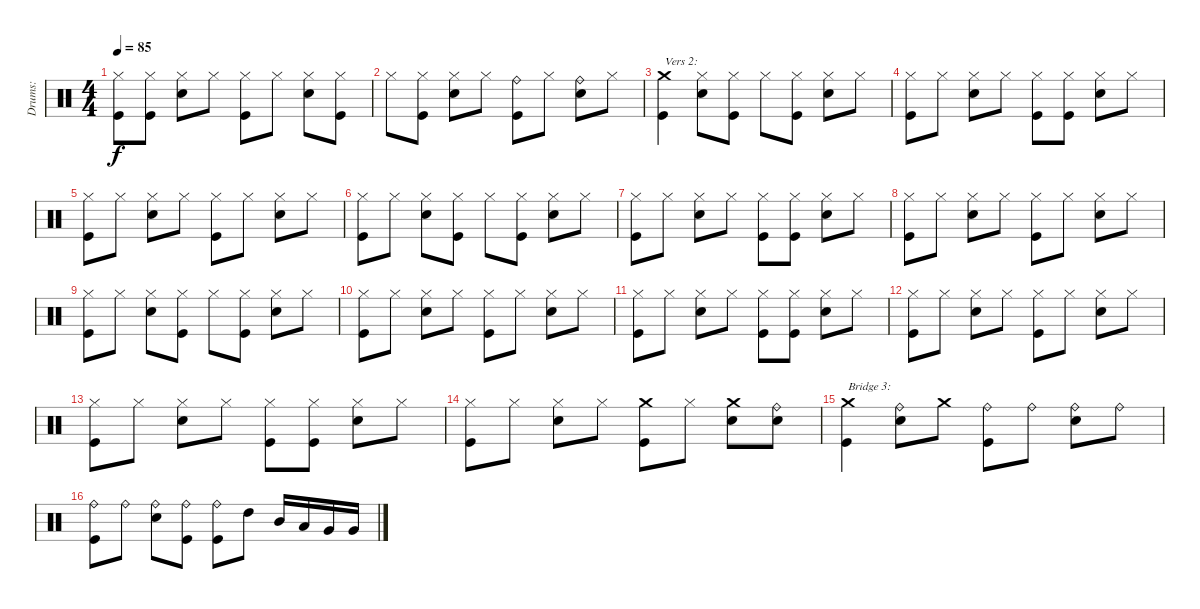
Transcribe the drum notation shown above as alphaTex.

\track ("Drums:" "Drums:") {instrument percussion}
\staff {score}
\articulation defaults
\ts (4 4)
\tempo 85
\clef neutral
\ks c
("Hi-Hat (closed)" "Kick (hit)").8{dy f} ("Hi-Hat (closed)" "Kick (hit)").8 ("Hi-Hat (closed)" "Snare (hit) 2").8 "Hi-Hat (closed)".8 ("Hi-Hat (closed)" "Kick (hit)").8 "Hi-Hat (closed)".8 ("Hi-Hat (closed)" "Snare (hit) 2").8 ("Hi-Hat (closed)" "Kick (hit)").8 |
"Hi-Hat (closed)".8 ("Hi-Hat (closed)" "Kick (hit)").8 ("Hi-Hat (closed)" "Snare (hit) 2").8 "Hi-Hat (closed)".8 ("Ride (bell)" "Kick (hit)").8 "Hi-Hat (closed)".8 ("Ride (bell)" "Snare (hit) 2").8 "Hi-Hat (closed)".8 |
("Crash medium (hit)" "Kick (hit)").4{txt "Vers 2:"} ("Hi-Hat (closed)" "Snare (hit) 2").8 ("Hi-Hat (closed)" "Kick (hit)").8 "Hi-Hat (closed)".8 ("Hi-Hat (closed)" "Kick (hit)").8 ("Hi-Hat (closed)" "Snare (hit) 2").8 "Hi-Hat (closed)".8 |
("Hi-Hat (closed)" "Kick (hit)").8 "Hi-Hat (closed)".8 ("Hi-Hat (closed)" "Snare (hit) 2").8 "Hi-Hat (closed)".8 ("Hi-Hat (closed)" "Kick (hit)").8 ("Hi-Hat (closed)" "Kick (hit)").8 ("Hi-Hat (closed)" "Snare (hit) 2").8 "Hi-Hat (closed)".8 |
("Hi-Hat (closed)" "Kick (hit)").8 "Hi-Hat (closed)".8 ("Hi-Hat (closed)" "Snare (hit) 2").8 "Hi-Hat (closed)".8 ("Hi-Hat (closed)" "Kick (hit)").8 "Hi-Hat (closed)".8 ("Hi-Hat (closed)" "Snare (hit) 2").8 "Hi-Hat (closed)".8 |
("Hi-Hat (closed)" "Kick (hit)").8 "Hi-Hat (closed)".8 ("Hi-Hat (closed)" "Snare (hit) 2").8 ("Hi-Hat (closed)" "Kick (hit)").8 "Hi-Hat (closed)".8 ("Hi-Hat (closed)" "Kick (hit)").8 ("Hi-Hat (closed)" "Snare (hit) 2").8 "Hi-Hat (closed)".8 |
("Hi-Hat (closed)" "Kick (hit)").8 "Hi-Hat (closed)".8 ("Hi-Hat (closed)" "Snare (hit) 2").8 "Hi-Hat (closed)".8 ("Hi-Hat (closed)" "Kick (hit)").8 ("Hi-Hat (closed)" "Kick (hit)").8 ("Hi-Hat (closed)" "Snare (hit) 2").8 "Hi-Hat (closed)".8 |
("Hi-Hat (closed)" "Kick (hit)").8 "Hi-Hat (closed)".8 ("Hi-Hat (closed)" "Snare (hit) 2").8 "Hi-Hat (closed)".8 ("Hi-Hat (closed)" "Kick (hit)").8 "Hi-Hat (closed)".8 ("Hi-Hat (closed)" "Snare (hit) 2").8 "Hi-Hat (closed)".8 |
("Hi-Hat (closed)" "Kick (hit)").8 "Hi-Hat (closed)".8 ("Hi-Hat (closed)" "Snare (hit) 2").8 ("Hi-Hat (closed)" "Kick (hit)").8 "Hi-Hat (closed)".8 ("Hi-Hat (closed)" "Kick (hit)").8 ("Hi-Hat (closed)" "Snare (hit) 2").8 "Hi-Hat (closed)".8 |
("Hi-Hat (closed)" "Kick (hit)").8 "Hi-Hat (closed)".8 ("Hi-Hat (closed)" "Snare (hit) 2").8 "Hi-Hat (closed)".8 ("Hi-Hat (closed)" "Kick (hit)").8 "Hi-Hat (closed)".8 ("Hi-Hat (closed)" "Snare (hit) 2").8 "Hi-Hat (closed)".8 |
("Hi-Hat (closed)" "Kick (hit)").8 "Hi-Hat (closed)".8 ("Hi-Hat (closed)" "Snare (hit) 2").8 "Hi-Hat (closed)".8 ("Hi-Hat (closed)" "Kick (hit)").8 ("Hi-Hat (closed)" "Kick (hit)").8 ("Hi-Hat (closed)" "Snare (hit) 2").8 "Hi-Hat (closed)".8 |
("Hi-Hat (closed)" "Kick (hit)").8 "Hi-Hat (closed)".8 ("Hi-Hat (closed)" "Snare (hit) 2").8 "Hi-Hat (closed)".8 ("Hi-Hat (closed)" "Kick (hit)").8 "Hi-Hat (closed)".8 ("Hi-Hat (closed)" "Snare (hit) 2").8 "Hi-Hat (closed)".8 |
("Hi-Hat (closed)" "Kick (hit)").8 "Hi-Hat (closed)".8 ("Hi-Hat (closed)" "Snare (hit) 2").8 "Hi-Hat (closed)".8 ("Hi-Hat (closed)" "Kick (hit)").8 ("Hi-Hat (closed)" "Kick (hit)").8 ("Hi-Hat (closed)" "Snare (hit) 2").8 "Hi-Hat (closed)".8 |
("Hi-Hat (closed)" "Kick (hit)").8 "Hi-Hat (closed)".8 ("Hi-Hat (closed)" "Snare (hit) 2").8 "Hi-Hat (closed)".8 ("Crash medium (hit)" "Kick (hit)").8 "Hi-Hat (closed)".8 ("Crash medium (hit)" "Snare (hit) 2").8 ("Ride (bell)" "Snare (hit) 2").8 |
("Crash medium (hit)" "Kick (hit)").4{txt "Bridge 3:"} ("Ride (bell)" "Snare (hit) 2").8 "Crash medium (hit)".8 ("Ride (bell)" "Kick (hit)").8 "Ride (bell)".8 ("Ride (bell)" "Snare (hit) 2").8 "Ride (bell)".8 |
("Ride (bell)" "Kick (hit)").8 "Ride (bell)".8 ("Ride (bell)" "Snare (hit) 2").8 ("Ride (bell)" "Kick (hit)").8 ("Ride (bell)" "Kick (hit)").8 "High Tom (hit)".8 "Mid Tom (hit)".16 "Low Tom (hit)".16 "Very Low Tom (hit)".16 "Very Low Tom (hit)".16
